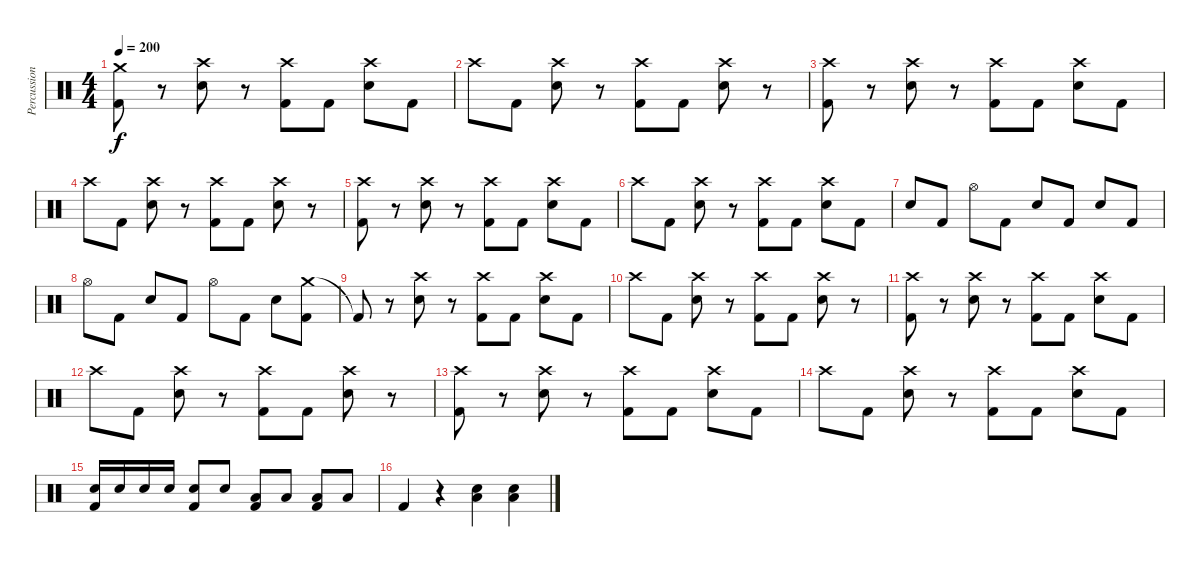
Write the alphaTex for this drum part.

\track ("Percussion" "Percussion") {instrument percussion}
\staff {score}
\articulation defaults
\ts (4 4)
\tempo 200
\clef neutral
\ks c
("Crash medium (hit)" "Kick (hit) 2").8{dy f} r.8 ("Crash high (hit)" "Electric Snare (hit)").8 r.8 ("Crash high (hit)" "Kick (hit) 2").8 "Kick (hit) 2".8 ("Crash high (hit)" "Electric Snare (hit)").8 "Kick (hit) 2".8 |
"Crash high (hit)".8 "Kick (hit) 2".8 ("Crash high (hit)" "Electric Snare (hit)").8 r.8 ("Crash high (hit)" "Kick (hit) 2").8 "Kick (hit) 2".8 ("Crash high (hit)" "Electric Snare (hit)").8 r.8 |
("Crash high (hit)" "Kick (hit) 2").8 r.8 ("Crash high (hit)" "Electric Snare (hit)").8 r.8 ("Crash high (hit)" "Kick (hit) 2").8 "Kick (hit) 2".8 ("Crash high (hit)" "Electric Snare (hit)").8 "Kick (hit) 2".8 |
"Crash high (hit)".8 "Kick (hit) 2".8 ("Crash high (hit)" "Electric Snare (hit)").8 r.8 ("Crash high (hit)" "Kick (hit) 2").8 "Kick (hit) 2".8 ("Crash high (hit)" "Electric Snare (hit)").8 r.8 |
("Crash high (hit)" "Kick (hit) 2").8 r.8 ("Crash high (hit)" "Electric Snare (hit)").8 r.8 ("Crash high (hit)" "Kick (hit) 2").8 "Kick (hit) 2".8 ("Crash high (hit)" "Electric Snare (hit)").8 "Kick (hit) 2".8 |
"Crash high (hit)".8 "Kick (hit) 2".8 ("Crash high (hit)" "Electric Snare (hit)").8 r.8 ("Crash high (hit)" "Kick (hit) 2").8 "Kick (hit) 2".8 ("Crash high (hit)" "Electric Snare (hit)").8 "Kick (hit) 2".8 |
"Electric Snare (hit)".8 "Kick (hit) 2".8 "Hi-Hat (open)".8 "Kick (hit) 2".8 "Electric Snare (hit)".8 "Kick (hit) 2".8 "Electric Snare (hit)".8 "Kick (hit) 2".8 |
"Hi-Hat (open)".8 "Kick (hit) 2".8 "Electric Snare (hit)".8 "Kick (hit) 2".8 "Hi-Hat (open)".8 "Kick (hit) 2".8 "Electric Snare (hit)".8 ("Crash medium (hit)" "Kick (hit) 2").8 |
"Kick (hit) 2"{t}.8 r.8 ("Crash high (hit)" "Electric Snare (hit)").8 r.8 ("Crash high (hit)" "Kick (hit) 2").8 "Kick (hit) 2".8 ("Crash high (hit)" "Electric Snare (hit)").8 "Kick (hit) 2".8 |
"Crash high (hit)".8 "Kick (hit) 2".8 ("Crash high (hit)" "Electric Snare (hit)").8 r.8 ("Crash high (hit)" "Kick (hit) 2").8 "Kick (hit) 2".8 ("Crash high (hit)" "Electric Snare (hit)").8 r.8 |
("Crash high (hit)" "Kick (hit) 2").8 r.8 ("Crash high (hit)" "Electric Snare (hit)").8 r.8 ("Crash high (hit)" "Kick (hit) 2").8 "Kick (hit) 2".8 ("Crash high (hit)" "Electric Snare (hit)").8 "Kick (hit) 2".8 |
"Crash high (hit)".8 "Kick (hit) 2".8 ("Crash high (hit)" "Electric Snare (hit)").8 r.8 ("Crash high (hit)" "Kick (hit) 2").8 "Kick (hit) 2".8 ("Crash high (hit)" "Electric Snare (hit)").8 r.8 |
("Crash high (hit)" "Kick (hit) 2").8 r.8 ("Crash high (hit)" "Electric Snare (hit)").8 r.8 ("Crash high (hit)" "Kick (hit) 2").8 "Kick (hit) 2".8 ("Crash high (hit)" "Electric Snare (hit)").8 "Kick (hit) 2".8 |
"Crash high (hit)".8 "Kick (hit) 2".8 ("Crash high (hit)" "Electric Snare (hit)").8 r.8 ("Crash high (hit)" "Kick (hit) 2").8 "Kick (hit) 2".8 ("Crash high (hit)" "Electric Snare (hit)").8 "Kick (hit) 2".8 |
("Electric Snare (hit)" "Kick (hit) 2").16 "Electric Snare (hit)".16 "Electric Snare (hit)".16 "Electric Snare (hit)".16 ("Electric Snare (hit)" "Kick (hit) 2").8 "Electric Snare (hit)".8 ("Low Tom (hit)" "Kick (hit) 2").8 "Low Tom (hit)".8 ("Low Floor Tom (hit)" "Kick (hit) 2").8 "Low Floor Tom (hit)".8 |
"Kick (hit) 2".4 r.4 ("Electric Snare (hit)" "Low Floor Tom (hit)").4 ("Electric Snare (hit)" "Low Floor Tom (hit)").4
